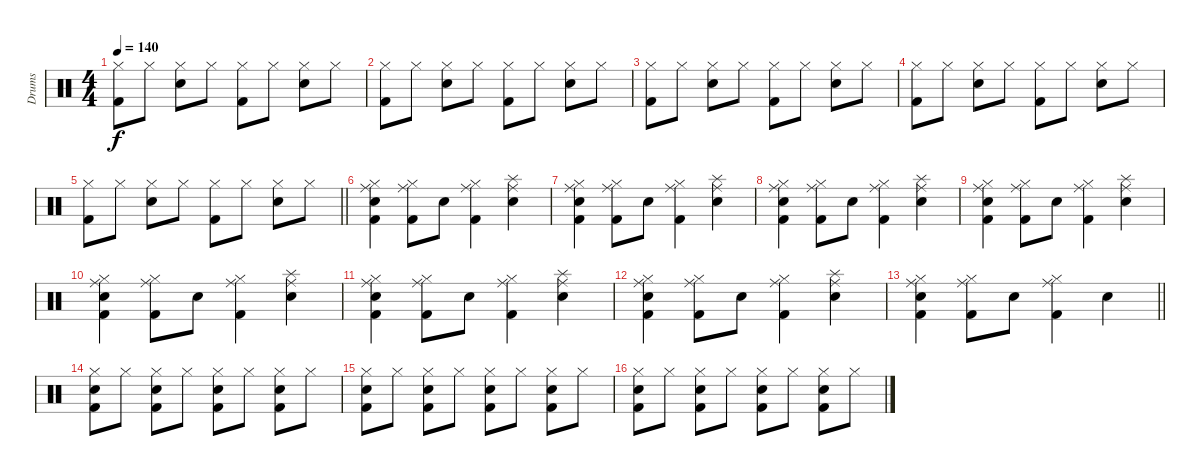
\track ("Drums" "Drums") {instrument percussion}
\staff {score}
\articulation defaults
\ts (4 4)
\tempo 140
\clef neutral
\ks c
("Hi-Hat (closed)" "Kick (hit) 2").8{dy f} "Hi-Hat (closed)".8 ("Hi-Hat (closed)" "Snare (hit) 2").8 "Hi-Hat (closed)".8 ("Hi-Hat (closed)" "Kick (hit) 2").8 "Hi-Hat (closed)".8 ("Hi-Hat (closed)" "Snare (hit) 2").8 "Hi-Hat (closed)".8 |
("Hi-Hat (closed)" "Kick (hit) 2").8 "Hi-Hat (closed)".8 ("Hi-Hat (closed)" "Snare (hit) 2").8 "Hi-Hat (closed)".8 ("Hi-Hat (closed)" "Kick (hit) 2").8 "Hi-Hat (closed)".8 ("Hi-Hat (closed)" "Snare (hit) 2").8 "Hi-Hat (closed)".8 |
("Hi-Hat (closed)" "Kick (hit) 2").8 "Hi-Hat (closed)".8 ("Hi-Hat (closed)" "Snare (hit) 2").8 "Hi-Hat (closed)".8 ("Hi-Hat (closed)" "Kick (hit) 2").8 "Hi-Hat (closed)".8 ("Hi-Hat (closed)" "Snare (hit) 2").8 "Hi-Hat (closed)".8 |
("Hi-Hat (closed)" "Kick (hit) 2").8 "Hi-Hat (closed)".8 ("Hi-Hat (closed)" "Snare (hit) 2").8 "Hi-Hat (closed)".8 ("Hi-Hat (closed)" "Kick (hit) 2").8 "Hi-Hat (closed)".8 ("Hi-Hat (closed)" "Snare (hit) 2").8 "Hi-Hat (closed)".8 |
\barLineRight lightlight
("Hi-Hat (closed)" "Kick (hit) 2").8 "Hi-Hat (closed)".8 ("Hi-Hat (closed)" "Snare (hit) 2").8 "Hi-Hat (closed)".8 ("Hi-Hat (closed)" "Kick (hit) 2").8 "Hi-Hat (closed)".8 ("Hi-Hat (closed)" "Snare (hit) 2").8 "Hi-Hat (closed)".8 |
("Hi-Hat (closed)" "Ride (middle)" "Electric Snare (hit)" "Kick (hit) 2").4 ("Hi-Hat (closed)" "Ride (middle)" "Kick (hit) 2").8 "Electric Snare (hit)".8 ("Hi-Hat (closed)" "Ride (middle)" "Kick (hit) 2").4 ("Splash (hit)" "Ride (middle)" "Electric Snare (hit)").4 |
("Hi-Hat (closed)" "Ride (middle)" "Electric Snare (hit)" "Kick (hit) 2").4 ("Hi-Hat (closed)" "Ride (middle)" "Kick (hit) 2").8 "Electric Snare (hit)".8 ("Hi-Hat (closed)" "Ride (middle)" "Kick (hit) 2").4 ("Splash (hit)" "Ride (middle)" "Electric Snare (hit)").4 |
("Hi-Hat (closed)" "Ride (middle)" "Electric Snare (hit)" "Kick (hit) 2").4 ("Hi-Hat (closed)" "Ride (middle)" "Kick (hit) 2").8 "Electric Snare (hit)".8 ("Hi-Hat (closed)" "Ride (middle)" "Kick (hit) 2").4 ("Splash (hit)" "Ride (middle)" "Electric Snare (hit)").4 |
("Hi-Hat (closed)" "Ride (middle)" "Electric Snare (hit)" "Kick (hit) 2").4 ("Hi-Hat (closed)" "Ride (middle)" "Kick (hit) 2").8 "Electric Snare (hit)".8 ("Hi-Hat (closed)" "Ride (middle)" "Kick (hit) 2").4 ("Splash (hit)" "Ride (middle)" "Electric Snare (hit)").4 |
("Hi-Hat (closed)" "Ride (middle)" "Electric Snare (hit)" "Kick (hit) 2").4 ("Hi-Hat (closed)" "Ride (middle)" "Kick (hit) 2").8 "Electric Snare (hit)".8 ("Hi-Hat (closed)" "Ride (middle)" "Kick (hit) 2").4 ("Splash (hit)" "Ride (middle)" "Electric Snare (hit)").4 |
("Hi-Hat (closed)" "Ride (middle)" "Electric Snare (hit)" "Kick (hit) 2").4 ("Hi-Hat (closed)" "Ride (middle)" "Kick (hit) 2").8 "Electric Snare (hit)".8 ("Hi-Hat (closed)" "Ride (middle)" "Kick (hit) 2").4 ("Splash (hit)" "Ride (middle)" "Electric Snare (hit)").4 |
("Hi-Hat (closed)" "Ride (middle)" "Electric Snare (hit)" "Kick (hit) 2").4 ("Hi-Hat (closed)" "Ride (middle)" "Kick (hit) 2").8 "Electric Snare (hit)".8 ("Hi-Hat (closed)" "Ride (middle)" "Kick (hit) 2").4 ("Splash (hit)" "Ride (middle)" "Electric Snare (hit)").4 |
\barLineRight lightlight
("Hi-Hat (closed)" "Ride (middle)" "Electric Snare (hit)" "Kick (hit) 2").4 ("Hi-Hat (closed)" "Ride (middle)" "Kick (hit) 2").8 "Electric Snare (hit)".8 ("Hi-Hat (closed)" "Ride (middle)" "Kick (hit) 2").4 "Electric Snare (hit)".4 |
("Hi-Hat (closed)" "Electric Snare (hit)" "Kick (hit) 2").8 "Hi-Hat (closed)".8 ("Hi-Hat (closed)" "Electric Snare (hit)" "Kick (hit) 2").8 "Hi-Hat (closed)".8 ("Hi-Hat (closed)" "Electric Snare (hit)" "Kick (hit) 2").8 "Hi-Hat (closed)".8 ("Hi-Hat (closed)" "Electric Snare (hit)" "Kick (hit) 2").8 "Hi-Hat (closed)".8 |
("Hi-Hat (closed)" "Electric Snare (hit)" "Kick (hit) 2").8 "Hi-Hat (closed)".8 ("Hi-Hat (closed)" "Electric Snare (hit)" "Kick (hit) 2").8 "Hi-Hat (closed)".8 ("Hi-Hat (closed)" "Electric Snare (hit)" "Kick (hit) 2").8 "Hi-Hat (closed)".8 ("Hi-Hat (closed)" "Electric Snare (hit)" "Kick (hit) 2").8 "Hi-Hat (closed)".8 |
("Hi-Hat (closed)" "Electric Snare (hit)" "Kick (hit) 2").8 "Hi-Hat (closed)".8 ("Hi-Hat (closed)" "Electric Snare (hit)" "Kick (hit) 2").8 "Hi-Hat (closed)".8 ("Hi-Hat (closed)" "Electric Snare (hit)" "Kick (hit) 2").8 "Hi-Hat (closed)".8 ("Hi-Hat (closed)" "Electric Snare (hit)" "Kick (hit) 2").8 "Hi-Hat (closed)".8
